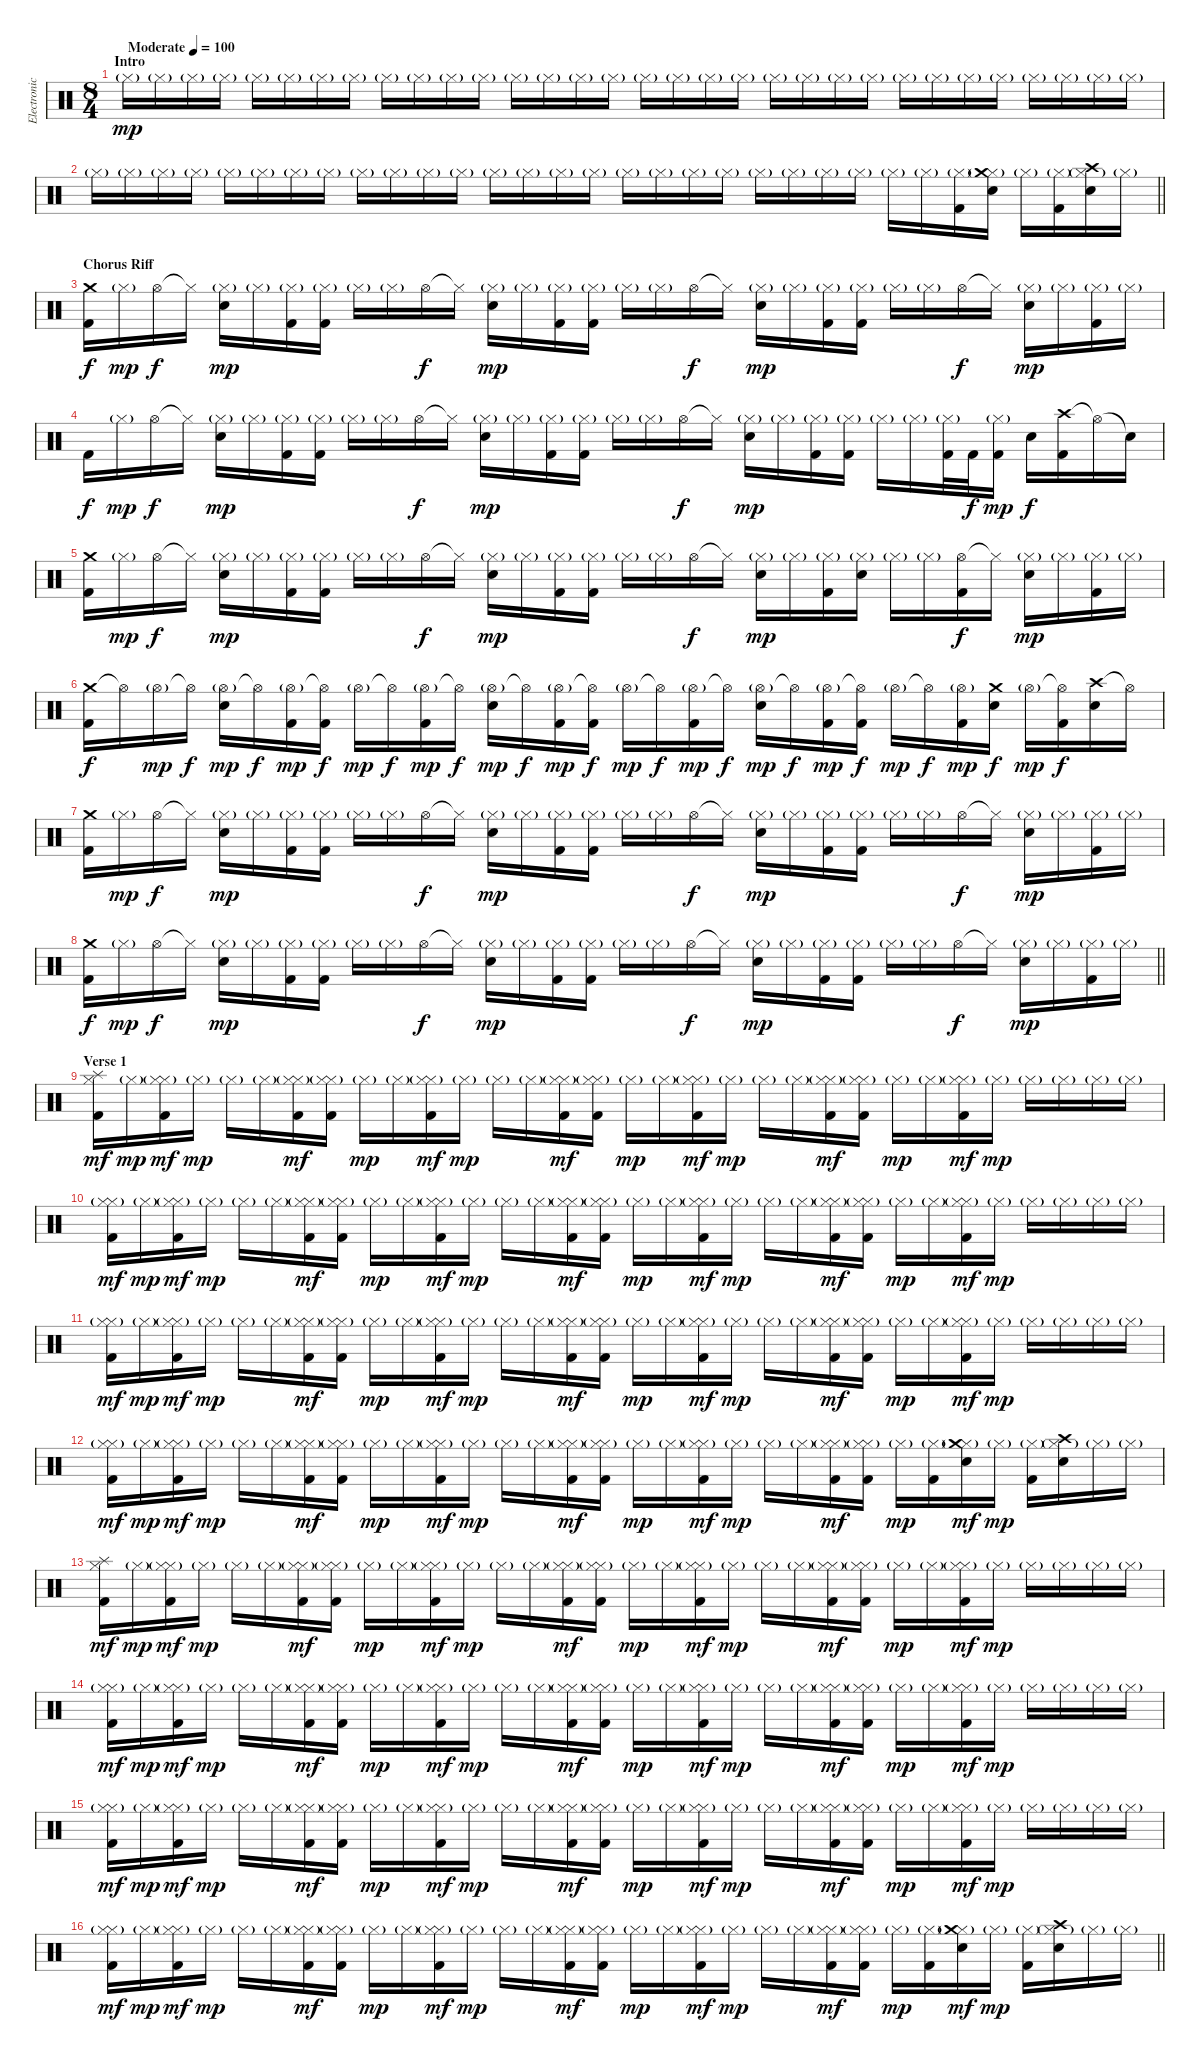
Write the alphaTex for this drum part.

\track ("Electronic Drums" "Electronic") {instrument percussion}
\staff {score}
\articulation defaults
\ts (8 4)
\section ("" "Intro")
\tempo (100 "Moderate")
\clef neutral
\ks c "Hi-Hat (closed)"{g}.16{dy mp} "Hi-Hat (closed)"{g}.16 "Hi-Hat (closed)"{g}.16 "Hi-Hat (closed)"{g}.16 "Hi-Hat (closed)"{g}.16 "Hi-Hat (closed)"{g}.16 "Hi-Hat (closed)"{g}.16 "Hi-Hat (closed)"{g}.16 "Hi-Hat (closed)"{g}.16 "Hi-Hat (closed)"{g}.16 "Hi-Hat (closed)"{g}.16 "Hi-Hat (closed)"{g}.16 "Hi-Hat (closed)"{g}.16 "Hi-Hat (closed)"{g}.16 "Hi-Hat (closed)"{g}.16 "Hi-Hat (closed)"{g}.16 "Hi-Hat (closed)"{g}.16 "Hi-Hat (closed)"{g}.16 "Hi-Hat (closed)"{g}.16 "Hi-Hat (closed)"{g}.16 "Hi-Hat (closed)"{g}.16 "Hi-Hat (closed)"{g}.16 "Hi-Hat (closed)"{g}.16 "Hi-Hat (closed)"{g}.16 "Hi-Hat (closed)"{g}.16 "Hi-Hat (closed)"{g}.16 "Hi-Hat (closed)"{g}.16 "Hi-Hat (closed)"{g}.16 "Hi-Hat (closed)"{g}.16 "Hi-Hat (closed)"{g}.16 "Hi-Hat (closed)"{g}.16 "Hi-Hat (closed)"{g}.16
|
\barLineRight lightlight "Hi-Hat (closed)"{g}.16 "Hi-Hat (closed)"{g}.16 "Hi-Hat (closed)"{g}.16 "Hi-Hat (closed)"{g}.16 "Hi-Hat (closed)"{g}.16 "Hi-Hat (closed)"{g}.16 "Hi-Hat (closed)"{g}.16 "Hi-Hat (closed)"{g}.16 "Hi-Hat (closed)"{g}.16 "Hi-Hat (closed)"{g}.16 "Hi-Hat (closed)"{g}.16 "Hi-Hat (closed)"{g}.16 "Hi-Hat (closed)"{g}.16 "Hi-Hat (closed)"{g}.16 "Hi-Hat (closed)"{g}.16 "Hi-Hat (closed)"{g}.16 "Hi-Hat (closed)"{g}.16 "Hi-Hat (closed)"{g}.16 "Hi-Hat (closed)"{g}.16 "Hi-Hat (closed)"{g}.16 "Hi-Hat (closed)"{g}.16 "Hi-Hat (closed)"{g}.16 "Hi-Hat (closed)"{g}.16 "Hi-Hat (closed)"{g}.16 "Hi-Hat (closed)"{g}.16 "Hi-Hat (closed)"{g}.16
("Hi-Hat (closed)"{g} "Kick (hit) 2").16 ("Hi-Hat (closed)"{g} "Crash medium (hit)" "Snare (hit) 2").16 "Hi-Hat (closed)"{g}.16 ("Hi-Hat (closed)"{g} "Kick (hit) 2").16 ("Hi-Hat (closed)"{g} "Crash high (hit)" "Snare (hit) 2").16 "Hi-Hat (closed)"{g}.16 |
\section ("" "Chorus Riff")
("Crash medium (hit)" "Kick (hit) 2").16{dy f} "Hi-Hat (closed)"{g}.16{dy mp} "Hi-Hat (open)".16{dy f} "Hi-Hat (closed)"{t}.16 ("Hi-Hat (closed)"{g} "Snare (hit) 2").16{dy mp} "Hi-Hat (closed)"{g}.16 ("Hi-Hat (closed)"{g} "Kick (hit) 2").16 ("Hi-Hat (closed)"{g} "Kick (hit) 2").16 "Hi-Hat (closed)"{g}.16 "Hi-Hat (closed)"{g}.16 "Hi-Hat (open)".16{dy f} "Hi-Hat (closed)"{t}.16 ("Hi-Hat (closed)"{g} "Snare (hit) 2").16{dy mp} "Hi-Hat (closed)"{g}.16 ("Hi-Hat (closed)"{g} "Kick (hit) 2").16 ("Hi-Hat (closed)"{g} "Kick (hit) 2").16 "Hi-Hat (closed)"{g}.16 "Hi-Hat (closed)"{g}.16 "Hi-Hat (open)".16{dy f} "Hi-Hat (closed)"{t}.16 ("Hi-Hat (closed)"{g} "Snare (hit) 2").16{dy mp} "Hi-Hat (closed)"{g}.16 ("Hi-Hat (closed)"{g} "Kick (hit) 2").16 ("Hi-Hat (closed)"{g} "Kick (hit) 2").16 "Hi-Hat (closed)"{g}.16 "Hi-Hat (closed)"{g}.16 "Hi-Hat (open)".16{dy f} "Hi-Hat (closed)"{t}.16 ("Hi-Hat (closed)"{g} "Snare (hit) 2").16{dy mp} "Hi-Hat (closed)"{g}.16 ("Hi-Hat (closed)"{g} "Kick (hit) 2").16 "Hi-Hat (closed)"{g}.16 |
"Kick (hit) 2".16{dy f} "Hi-Hat (closed)"{g}.16{dy mp} "Hi-Hat (open)".16{dy f} "Hi-Hat (closed)"{t}.16 ("Hi-Hat (closed)"{g} "Snare (hit) 2").16{dy mp} "Hi-Hat (closed)"{g}.16 ("Hi-Hat (closed)"{g} "Kick (hit) 2").16 ("Hi-Hat (closed)"{g} "Kick (hit) 2").16 "Hi-Hat (closed)"{g}.16 "Hi-Hat (closed)"{g}.16 "Hi-Hat (open)".16{dy f} "Hi-Hat (closed)"{t}.16 ("Hi-Hat (closed)"{g} "Snare (hit) 2").16{dy mp} "Hi-Hat (closed)"{g}.16 ("Hi-Hat (closed)"{g} "Kick (hit) 2").16 ("Hi-Hat (closed)"{g} "Kick (hit) 2").16 "Hi-Hat (closed)"{g}.16 "Hi-Hat (closed)"{g}.16 "Hi-Hat (open)".16{dy f} "Hi-Hat (closed)"{t}.16 ("Hi-Hat (closed)"{g} "Snare (hit) 2").16{dy mp} "Hi-Hat (closed)"{g}.16 ("Hi-Hat (closed)"{g} "Kick (hit) 2").16 ("Hi-Hat (closed)"{g} "Kick (hit) 2").16 "Hi-Hat (closed)"{g}.16 "Hi-Hat (closed)"{g}.16 ("Hi-Hat (closed)"{g} "Kick (hit) 2").32 "Kick (hit) 2".32{dy f} ("Hi-Hat (closed)"{g} "Kick (hit) 2").16{dy mp} "Snare (hit) 2".16{dy f} ("Crash high (hit)" "Kick (hit) 2").16 "Hi-Hat (open)"{t}.16 "Snare (hit)"{t}.16 |
("Crash medium (hit)" "Kick (hit) 2").16 "Hi-Hat (closed)"{g}.16{dy mp} "Hi-Hat (open)".16{dy f} "Hi-Hat (closed)"{t}.16 ("Hi-Hat (closed)"{g} "Snare (hit) 2").16{dy mp} "Hi-Hat (closed)"{g}.16 ("Hi-Hat (closed)"{g} "Kick (hit) 2").16 ("Hi-Hat (closed)"{g} "Kick (hit) 2").16 "Hi-Hat (closed)"{g}.16 "Hi-Hat (closed)"{g}.16 "Hi-Hat (open)".16{dy f} "Hi-Hat (closed)"{t}.16 ("Hi-Hat (closed)"{g} "Snare (hit) 2").16{dy mp} "Hi-Hat (closed)"{g}.16 ("Hi-Hat (closed)"{g} "Kick (hit) 2").16 ("Hi-Hat (closed)"{g} "Kick (hit) 2").16 "Hi-Hat (closed)"{g}.16 "Hi-Hat (closed)"{g}.16 "Hi-Hat (open)".16{dy f} "Hi-Hat (closed)"{t}.16 ("Hi-Hat (closed)"{g} "Snare (hit) 2").16{dy mp} "Hi-Hat (closed)"{g}.16 ("Hi-Hat (closed)"{g} "Kick (hit) 2").16 ("Hi-Hat (closed)"{g} "Snare (hit) 2").16 "Hi-Hat (closed)"{g}.16 "Hi-Hat (closed)"{g}.16 ("Hi-Hat (open)" "Kick (hit) 2").16{dy f} "Hi-Hat (closed)"{t}.16 ("Hi-Hat (closed)"{g} "Snare (hit) 2").16{dy mp} "Hi-Hat (closed)"{g}.16 ("Hi-Hat (closed)"{g} "Kick (hit) 2").16 "Hi-Hat (closed)"{g}.16 |
("Crash medium (hit)" "Kick (hit) 2").16{dy f} "Hi-Hat (open)"{t}.16 "Hi-Hat (open)"{g}.16{dy mp} "Hi-Hat (open)"{t}.16{dy f} ("Hi-Hat (open)"{g} "Snare (hit) 2").16{dy mp} "Hi-Hat (open)"{t}.16{dy f} ("Hi-Hat (open)"{g} "Kick (hit) 2").16{dy mp} ("Hi-Hat (open)"{t} "Kick (hit) 2").16{dy f} "Hi-Hat (open)"{g}.16{dy mp} "Hi-Hat (open)"{t}.16{dy f} ("Hi-Hat (open)"{g} "Kick (hit) 2").16{dy mp} "Hi-Hat (open)"{t}.16{dy f} ("Hi-Hat (open)"{g} "Snare (hit) 2").16{dy mp} "Hi-Hat (open)"{t}.16{dy f} ("Hi-Hat (open)"{g} "Kick (hit) 2").16{dy mp} ("Hi-Hat (open)"{t} "Kick (hit) 2").16{dy f} "Hi-Hat (open)"{g}.16{dy mp} "Hi-Hat (open)"{t}.16{dy f} ("Hi-Hat (open)"{g} "Kick (hit) 2").16{dy mp} "Hi-Hat (open)"{t}.16{dy f} ("Hi-Hat (open)"{g} "Snare (hit) 2").16{dy mp} "Hi-Hat (open)"{t}.16{dy f} ("Hi-Hat (open)"{g} "Kick (hit) 2").16{dy mp} ("Hi-Hat (open)"{t} "Kick (hit) 2").16{dy f} "Hi-Hat (open)"{g}.16{dy mp} "Hi-Hat (open)"{t}.16{dy f} ("Hi-Hat (open)"{g} "Kick (hit) 2").16{dy mp} ("Crash medium (hit)" "Snare (hit) 2").16{dy f} "Hi-Hat (open)"{g}.16{dy mp} ("Hi-Hat (open)"{t} "Kick (hit) 2").16{dy f} ("Crash high (hit)" "Snare (hit) 2").16 "Hi-Hat (open)"{t}.16 |
("Crash medium (hit)" "Kick (hit) 2").16 "Hi-Hat (closed)"{g}.16{dy mp} "Hi-Hat (open)".16{dy f} "Hi-Hat (closed)"{t}.16 ("Hi-Hat (closed)"{g} "Snare (hit) 2").16{dy mp} "Hi-Hat (closed)"{g}.16 ("Hi-Hat (closed)"{g} "Kick (hit) 2").16 ("Hi-Hat (closed)"{g} "Kick (hit) 2").16 "Hi-Hat (closed)"{g}.16 "Hi-Hat (closed)"{g}.16 "Hi-Hat (open)".16{dy f} "Hi-Hat (closed)"{t}.16 ("Hi-Hat (closed)"{g} "Snare (hit) 2").16{dy mp} "Hi-Hat (closed)"{g}.16 ("Hi-Hat (closed)"{g} "Kick (hit) 2").16 ("Hi-Hat (closed)"{g} "Kick (hit) 2").16 "Hi-Hat (closed)"{g}.16 "Hi-Hat (closed)"{g}.16 "Hi-Hat (open)".16{dy f} "Hi-Hat (closed)"{t}.16 ("Hi-Hat (closed)"{g} "Snare (hit) 2").16{dy mp} "Hi-Hat (closed)"{g}.16 ("Hi-Hat (closed)"{g} "Kick (hit) 2").16 ("Hi-Hat (closed)"{g} "Kick (hit) 2").16 "Hi-Hat (closed)"{g}.16 "Hi-Hat (closed)"{g}.16 "Hi-Hat (open)".16{dy f} "Hi-Hat (closed)"{t}.16 ("Hi-Hat (closed)"{g} "Snare (hit) 2").16{dy mp} "Hi-Hat (closed)"{g}.16 ("Hi-Hat (closed)"{g} "Kick (hit) 2").16 "Hi-Hat (closed)"{g}.16 |
\barLineRight lightlight
("Crash medium (hit)" "Kick (hit) 2").16{dy f} "Hi-Hat (closed)"{g}.16{dy mp} "Hi-Hat (open)".16{dy f} "Hi-Hat (closed)"{t}.16 ("Hi-Hat (closed)"{g} "Snare (hit) 2").16{dy mp} "Hi-Hat (closed)"{g}.16 ("Hi-Hat (closed)"{g} "Kick (hit) 2").16 ("Hi-Hat (closed)"{g} "Kick (hit) 2").16 "Hi-Hat (closed)"{g}.16 "Hi-Hat (closed)"{g}.16 "Hi-Hat (open)".16{dy f} "Hi-Hat (closed)"{t}.16 ("Hi-Hat (closed)"{g} "Snare (hit) 2").16{dy mp} "Hi-Hat (closed)"{g}.16 ("Hi-Hat (closed)"{g} "Kick (hit) 2").16 ("Hi-Hat (closed)"{g} "Kick (hit) 2").16 "Hi-Hat (closed)"{g}.16 "Hi-Hat (closed)"{g}.16 "Hi-Hat (open)".16{dy f} "Hi-Hat (closed)"{t}.16 ("Hi-Hat (closed)"{g} "Snare (hit) 2").16{dy mp} "Hi-Hat (closed)"{g}.16 ("Hi-Hat (closed)"{g} "Kick (hit) 2").16 ("Hi-Hat (closed)"{g} "Kick (hit) 2").16 "Hi-Hat (closed)"{g}.16 "Hi-Hat (closed)"{g}.16 "Hi-Hat (open)".16{dy f} "Hi-Hat (closed)"{t}.16 ("Hi-Hat (closed)"{g} "Snare (hit) 2").16{dy mp} "Hi-Hat (closed)"{g}.16 ("Hi-Hat (closed)"{g} "Kick (hit) 2").16 "Hi-Hat (closed)"{g}.16 |
\section ("" "Verse 1")
("Splash (hit)" "Hi-Hat (closed)" "Kick (hit) 2").16{dy mf} "Hi-Hat (closed)"{g}.16{dy mp} ("Hi-Hat (closed)"{g} "Hi-Hat (closed)" "Kick (hit) 2").16{dy mf} "Hi-Hat (closed)"{g}.16{dy mp} "Hi-Hat (closed)"{g}.16 "Hi-Hat (closed)"{g}.16 ("Hi-Hat (closed)"{g} "Hi-Hat (closed)" "Kick (hit) 2").16{dy mf} ("Hi-Hat (closed)"{g} "Hi-Hat (closed)" "Kick (hit) 2").16 "Hi-Hat (closed)"{g}.16{dy mp} "Hi-Hat (closed)"{g}.16 ("Hi-Hat (closed)"{g} "Hi-Hat (closed)" "Kick (hit) 2").16{dy mf} "Hi-Hat (closed)"{g}.16{dy mp} "Hi-Hat (closed)"{g}.16 "Hi-Hat (closed)"{g}.16 ("Hi-Hat (closed)"{g} "Hi-Hat (closed)" "Kick (hit) 2").16{dy mf} ("Hi-Hat (closed)"{g} "Hi-Hat (closed)" "Kick (hit) 2").16 "Hi-Hat (closed)"{g}.16{dy mp} "Hi-Hat (closed)"{g}.16 ("Hi-Hat (closed)"{g} "Hi-Hat (closed)" "Kick (hit) 2").16{dy mf} "Hi-Hat (closed)"{g}.16{dy mp} "Hi-Hat (closed)"{g}.16 "Hi-Hat (closed)"{g}.16 ("Hi-Hat (closed)"{g} "Hi-Hat (closed)" "Kick (hit) 2").16{dy mf} ("Hi-Hat (closed)"{g} "Hi-Hat (closed)" "Kick (hit) 2").16 "Hi-Hat (closed)"{g}.16{dy mp} "Hi-Hat (closed)"{g}.16 ("Hi-Hat (closed)"{g} "Hi-Hat (closed)" "Kick (hit) 2").16{dy mf} "Hi-Hat (closed)"{g}.16{dy mp} "Hi-Hat (closed)"{g}.16 "Hi-Hat (closed)"{g}.16 "Hi-Hat (closed)"{g}.16 "Hi-Hat (closed)"{g}.16 |
("Hi-Hat (closed)"{g} "Hi-Hat (closed)" "Kick (hit) 2").16{dy mf} "Hi-Hat (closed)"{g}.16{dy mp} ("Hi-Hat (closed)"{g} "Hi-Hat (closed)" "Kick (hit) 2").16{dy mf} "Hi-Hat (closed)"{g}.16{dy mp} "Hi-Hat (closed)"{g}.16 "Hi-Hat (closed)"{g}.16 ("Hi-Hat (closed)"{g} "Hi-Hat (closed)" "Kick (hit) 2").16{dy mf} ("Hi-Hat (closed)"{g} "Hi-Hat (closed)" "Kick (hit) 2").16 "Hi-Hat (closed)"{g}.16{dy mp} "Hi-Hat (closed)"{g}.16 ("Hi-Hat (closed)"{g} "Hi-Hat (closed)" "Kick (hit) 2").16{dy mf} "Hi-Hat (closed)"{g}.16{dy mp} "Hi-Hat (closed)"{g}.16 "Hi-Hat (closed)"{g}.16 ("Hi-Hat (closed)"{g} "Hi-Hat (closed)" "Kick (hit) 2").16{dy mf} ("Hi-Hat (closed)"{g} "Hi-Hat (closed)" "Kick (hit) 2").16 "Hi-Hat (closed)"{g}.16{dy mp} "Hi-Hat (closed)"{g}.16 ("Hi-Hat (closed)"{g} "Hi-Hat (closed)" "Kick (hit) 2").16{dy mf} "Hi-Hat (closed)"{g}.16{dy mp} "Hi-Hat (closed)"{g}.16 "Hi-Hat (closed)"{g}.16 ("Hi-Hat (closed)"{g} "Hi-Hat (closed)" "Kick (hit) 2").16{dy mf} ("Hi-Hat (closed)"{g} "Hi-Hat (closed)" "Kick (hit) 2").16 "Hi-Hat (closed)"{g}.16{dy mp} "Hi-Hat (closed)"{g}.16 ("Hi-Hat (closed)"{g} "Hi-Hat (closed)" "Kick (hit) 2").16{dy mf} "Hi-Hat (closed)"{g}.16{dy mp} "Hi-Hat (closed)"{g}.16 "Hi-Hat (closed)"{g}.16 "Hi-Hat (closed)"{g}.16 "Hi-Hat (closed)"{g}.16 |
("Hi-Hat (closed)"{g} "Hi-Hat (closed)" "Kick (hit) 2").16{dy mf} "Hi-Hat (closed)"{g}.16{dy mp} ("Hi-Hat (closed)"{g} "Hi-Hat (closed)" "Kick (hit) 2").16{dy mf} "Hi-Hat (closed)"{g}.16{dy mp} "Hi-Hat (closed)"{g}.16 "Hi-Hat (closed)"{g}.16 ("Hi-Hat (closed)"{g} "Hi-Hat (closed)" "Kick (hit) 2").16{dy mf} ("Hi-Hat (closed)"{g} "Hi-Hat (closed)" "Kick (hit) 2").16 "Hi-Hat (closed)"{g}.16{dy mp} "Hi-Hat (closed)"{g}.16 ("Hi-Hat (closed)"{g} "Hi-Hat (closed)" "Kick (hit) 2").16{dy mf} "Hi-Hat (closed)"{g}.16{dy mp} "Hi-Hat (closed)"{g}.16 "Hi-Hat (closed)"{g}.16 ("Hi-Hat (closed)"{g} "Hi-Hat (closed)" "Kick (hit) 2").16{dy mf} ("Hi-Hat (closed)"{g} "Hi-Hat (closed)" "Kick (hit) 2").16 "Hi-Hat (closed)"{g}.16{dy mp} "Hi-Hat (closed)"{g}.16 ("Hi-Hat (closed)"{g} "Hi-Hat (closed)" "Kick (hit) 2").16{dy mf} "Hi-Hat (closed)"{g}.16{dy mp} "Hi-Hat (closed)"{g}.16 "Hi-Hat (closed)"{g}.16 ("Hi-Hat (closed)"{g} "Hi-Hat (closed)" "Kick (hit) 2").16{dy mf} ("Hi-Hat (closed)"{g} "Hi-Hat (closed)" "Kick (hit) 2").16 "Hi-Hat (closed)"{g}.16{dy mp} "Hi-Hat (closed)"{g}.16 ("Hi-Hat (closed)"{g} "Hi-Hat (closed)" "Kick (hit) 2").16{dy mf} "Hi-Hat (closed)"{g}.16{dy mp} "Hi-Hat (closed)"{g}.16 "Hi-Hat (closed)"{g}.16 "Hi-Hat (closed)"{g}.16 "Hi-Hat (closed)"{g}.16 |
("Hi-Hat (closed)"{g} "Hi-Hat (closed)" "Kick (hit) 2").16{dy mf} "Hi-Hat (closed)"{g}.16{dy mp} ("Hi-Hat (closed)"{g} "Hi-Hat (closed)" "Kick (hit) 2").16{dy mf} "Hi-Hat (closed)"{g}.16{dy mp} "Hi-Hat (closed)"{g}.16 "Hi-Hat (closed)"{g}.16 ("Hi-Hat (closed)"{g} "Hi-Hat (closed)" "Kick (hit) 2").16{dy mf} ("Hi-Hat (closed)"{g} "Hi-Hat (closed)" "Kick (hit) 2").16 "Hi-Hat (closed)"{g}.16{dy mp} "Hi-Hat (closed)"{g}.16 ("Hi-Hat (closed)"{g} "Hi-Hat (closed)" "Kick (hit) 2").16{dy mf} "Hi-Hat (closed)"{g}.16{dy mp} "Hi-Hat (closed)"{g}.16 "Hi-Hat (closed)"{g}.16 ("Hi-Hat (closed)"{g} "Hi-Hat (closed)" "Kick (hit) 2").16{dy mf} ("Hi-Hat (closed)"{g} "Hi-Hat (closed)" "Kick (hit) 2").16 "Hi-Hat (closed)"{g}.16{dy mp} "Hi-Hat (closed)"{g}.16 ("Hi-Hat (closed)"{g} "Hi-Hat (closed)" "Kick (hit) 2").16{dy mf} "Hi-Hat (closed)"{g}.16{dy mp} "Hi-Hat (closed)"{g}.16 "Hi-Hat (closed)"{g}.16 ("Hi-Hat (closed)"{g} "Hi-Hat (closed)" "Kick (hit) 2").16{dy mf} ("Hi-Hat (closed)"{g} "Hi-Hat (closed)" "Kick (hit) 2").16 "Hi-Hat (closed)"{g}.16{dy mp} ("Hi-Hat (closed)"{g} "Kick (hit) 2").16 ("Hi-Hat (closed)"{g} "Snare (hit) 2" "Crash medium (hit)").16{dy mf} "Hi-Hat (closed)"{g}.16{dy mp} ("Hi-Hat (closed)"{g} "Kick (hit) 2").16 ("Hi-Hat (closed)"{g} "Snare (hit) 2" "Crash high (hit)").16 "Hi-Hat (closed)"{g}.16 "Hi-Hat (closed)"{g}.16 |
("Splash (hit)" "Hi-Hat (closed)" "Kick (hit) 2").16{dy mf} "Hi-Hat (closed)"{g}.16{dy mp} ("Hi-Hat (closed)"{g} "Hi-Hat (closed)" "Kick (hit) 2").16{dy mf} "Hi-Hat (closed)"{g}.16{dy mp} "Hi-Hat (closed)"{g}.16 "Hi-Hat (closed)"{g}.16 ("Hi-Hat (closed)"{g} "Hi-Hat (closed)" "Kick (hit) 2").16{dy mf} ("Hi-Hat (closed)"{g} "Hi-Hat (closed)" "Kick (hit) 2").16 "Hi-Hat (closed)"{g}.16{dy mp} "Hi-Hat (closed)"{g}.16 ("Hi-Hat (closed)"{g} "Hi-Hat (closed)" "Kick (hit) 2").16{dy mf} "Hi-Hat (closed)"{g}.16{dy mp} "Hi-Hat (closed)"{g}.16 "Hi-Hat (closed)"{g}.16 ("Hi-Hat (closed)"{g} "Hi-Hat (closed)" "Kick (hit) 2").16{dy mf} ("Hi-Hat (closed)"{g} "Hi-Hat (closed)" "Kick (hit) 2").16 "Hi-Hat (closed)"{g}.16{dy mp} "Hi-Hat (closed)"{g}.16 ("Hi-Hat (closed)"{g} "Hi-Hat (closed)" "Kick (hit) 2").16{dy mf} "Hi-Hat (closed)"{g}.16{dy mp} "Hi-Hat (closed)"{g}.16 "Hi-Hat (closed)"{g}.16 ("Hi-Hat (closed)"{g} "Hi-Hat (closed)" "Kick (hit) 2").16{dy mf} ("Hi-Hat (closed)"{g} "Hi-Hat (closed)" "Kick (hit) 2").16 "Hi-Hat (closed)"{g}.16{dy mp} "Hi-Hat (closed)"{g}.16 ("Hi-Hat (closed)"{g} "Hi-Hat (closed)" "Kick (hit) 2").16{dy mf} "Hi-Hat (closed)"{g}.16{dy mp} "Hi-Hat (closed)"{g}.16 "Hi-Hat (closed)"{g}.16 "Hi-Hat (closed)"{g}.16 "Hi-Hat (closed)"{g}.16 |
("Hi-Hat (closed)"{g} "Hi-Hat (closed)" "Kick (hit) 2").16{dy mf} "Hi-Hat (closed)"{g}.16{dy mp} ("Hi-Hat (closed)"{g} "Hi-Hat (closed)" "Kick (hit) 2").16{dy mf} "Hi-Hat (closed)"{g}.16{dy mp} "Hi-Hat (closed)"{g}.16 "Hi-Hat (closed)"{g}.16 ("Hi-Hat (closed)"{g} "Hi-Hat (closed)" "Kick (hit) 2").16{dy mf} ("Hi-Hat (closed)"{g} "Hi-Hat (closed)" "Kick (hit) 2").16 "Hi-Hat (closed)"{g}.16{dy mp} "Hi-Hat (closed)"{g}.16 ("Hi-Hat (closed)"{g} "Hi-Hat (closed)" "Kick (hit) 2").16{dy mf} "Hi-Hat (closed)"{g}.16{dy mp} "Hi-Hat (closed)"{g}.16 "Hi-Hat (closed)"{g}.16 ("Hi-Hat (closed)"{g} "Hi-Hat (closed)" "Kick (hit) 2").16{dy mf} ("Hi-Hat (closed)"{g} "Hi-Hat (closed)" "Kick (hit) 2").16 "Hi-Hat (closed)"{g}.16{dy mp} "Hi-Hat (closed)"{g}.16 ("Hi-Hat (closed)"{g} "Hi-Hat (closed)" "Kick (hit) 2").16{dy mf} "Hi-Hat (closed)"{g}.16{dy mp} "Hi-Hat (closed)"{g}.16 "Hi-Hat (closed)"{g}.16 ("Hi-Hat (closed)"{g} "Hi-Hat (closed)" "Kick (hit) 2").16{dy mf} ("Hi-Hat (closed)"{g} "Hi-Hat (closed)" "Kick (hit) 2").16 "Hi-Hat (closed)"{g}.16{dy mp} "Hi-Hat (closed)"{g}.16 ("Hi-Hat (closed)"{g} "Hi-Hat (closed)" "Kick (hit) 2").16{dy mf} "Hi-Hat (closed)"{g}.16{dy mp} "Hi-Hat (closed)"{g}.16 "Hi-Hat (closed)"{g}.16 "Hi-Hat (closed)"{g}.16 "Hi-Hat (closed)"{g}.16 |
("Hi-Hat (closed)"{g} "Hi-Hat (closed)" "Kick (hit) 2").16{dy mf} "Hi-Hat (closed)"{g}.16{dy mp} ("Hi-Hat (closed)"{g} "Hi-Hat (closed)" "Kick (hit) 2").16{dy mf} "Hi-Hat (closed)"{g}.16{dy mp} "Hi-Hat (closed)"{g}.16 "Hi-Hat (closed)"{g}.16 ("Hi-Hat (closed)"{g} "Hi-Hat (closed)" "Kick (hit) 2").16{dy mf} ("Hi-Hat (closed)"{g} "Hi-Hat (closed)" "Kick (hit) 2").16 "Hi-Hat (closed)"{g}.16{dy mp} "Hi-Hat (closed)"{g}.16 ("Hi-Hat (closed)"{g} "Hi-Hat (closed)" "Kick (hit) 2").16{dy mf} "Hi-Hat (closed)"{g}.16{dy mp} "Hi-Hat (closed)"{g}.16 "Hi-Hat (closed)"{g}.16 ("Hi-Hat (closed)"{g} "Hi-Hat (closed)" "Kick (hit) 2").16{dy mf} ("Hi-Hat (closed)"{g} "Hi-Hat (closed)" "Kick (hit) 2").16 "Hi-Hat (closed)"{g}.16{dy mp} "Hi-Hat (closed)"{g}.16 ("Hi-Hat (closed)"{g} "Hi-Hat (closed)" "Kick (hit) 2").16{dy mf} "Hi-Hat (closed)"{g}.16{dy mp} "Hi-Hat (closed)"{g}.16 "Hi-Hat (closed)"{g}.16 ("Hi-Hat (closed)"{g} "Hi-Hat (closed)" "Kick (hit) 2").16{dy mf} ("Hi-Hat (closed)"{g} "Hi-Hat (closed)" "Kick (hit) 2").16 "Hi-Hat (closed)"{g}.16{dy mp} "Hi-Hat (closed)"{g}.16 ("Hi-Hat (closed)"{g} "Hi-Hat (closed)" "Kick (hit) 2").16{dy mf} "Hi-Hat (closed)"{g}.16{dy mp} "Hi-Hat (closed)"{g}.16 "Hi-Hat (closed)"{g}.16 "Hi-Hat (closed)"{g}.16 "Hi-Hat (closed)"{g}.16 |
\barLineRight lightlight
("Hi-Hat (closed)"{g} "Hi-Hat (closed)" "Kick (hit) 2").16{dy mf} "Hi-Hat (closed)"{g}.16{dy mp} ("Hi-Hat (closed)"{g} "Hi-Hat (closed)" "Kick (hit) 2").16{dy mf} "Hi-Hat (closed)"{g}.16{dy mp} "Hi-Hat (closed)"{g}.16 "Hi-Hat (closed)"{g}.16 ("Hi-Hat (closed)"{g} "Hi-Hat (closed)" "Kick (hit) 2").16{dy mf} ("Hi-Hat (closed)"{g} "Hi-Hat (closed)" "Kick (hit) 2").16 "Hi-Hat (closed)"{g}.16{dy mp} "Hi-Hat (closed)"{g}.16 ("Hi-Hat (closed)"{g} "Hi-Hat (closed)" "Kick (hit) 2").16{dy mf} "Hi-Hat (closed)"{g}.16{dy mp} "Hi-Hat (closed)"{g}.16 "Hi-Hat (closed)"{g}.16 ("Hi-Hat (closed)"{g} "Hi-Hat (closed)" "Kick (hit) 2").16{dy mf} ("Hi-Hat (closed)"{g} "Hi-Hat (closed)" "Kick (hit) 2").16 "Hi-Hat (closed)"{g}.16{dy mp} "Hi-Hat (closed)"{g}.16 ("Hi-Hat (closed)"{g} "Hi-Hat (closed)" "Kick (hit) 2").16{dy mf} "Hi-Hat (closed)"{g}.16{dy mp} "Hi-Hat (closed)"{g}.16 "Hi-Hat (closed)"{g}.16 ("Hi-Hat (closed)"{g} "Hi-Hat (closed)" "Kick (hit) 2").16{dy mf} ("Hi-Hat (closed)"{g} "Hi-Hat (closed)" "Kick (hit) 2").16 "Hi-Hat (closed)"{g}.16{dy mp} ("Hi-Hat (closed)"{g} "Kick (hit) 2").16 ("Hi-Hat (closed)"{g} "Snare (hit) 2" "Crash medium (hit)").16{dy mf} "Hi-Hat (closed)"{g}.16{dy mp} ("Hi-Hat (closed)"{g} "Kick (hit) 2").16 ("Hi-Hat (closed)"{g} "Snare (hit) 2" "Crash high (hit)").16 "Hi-Hat (closed)"{g}.16 "Hi-Hat (closed)"{g}.16
